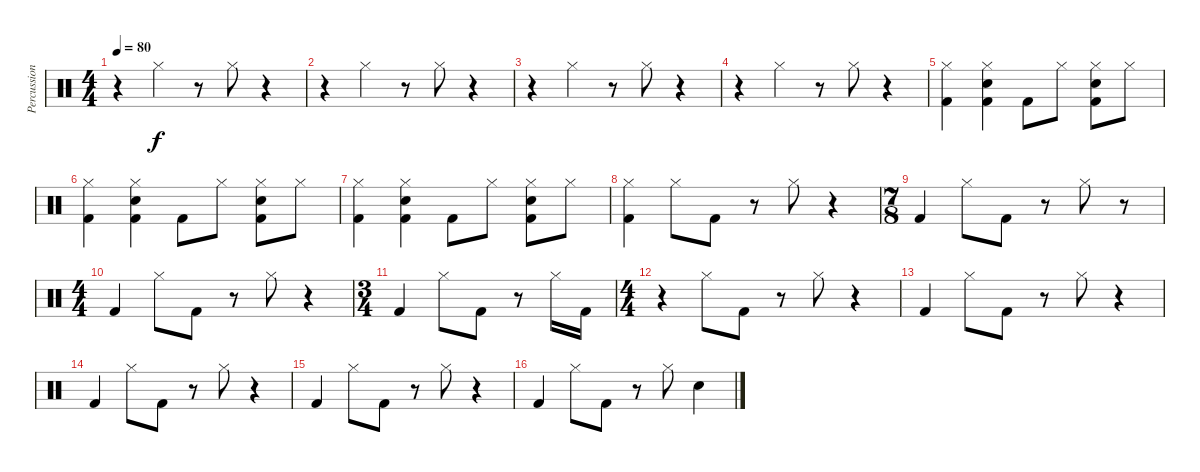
\track ("Percussion" "Percussion") {instrument percussion}
\staff {score}
\articulation defaults
\ts (4 4)
\tempo 80
\clef neutral
\ks c
r.4{dy f} "Hi-Hat (closed)".4 r.8 "Hi-Hat (closed)".8 r.4 |
r.4 "Hi-Hat (closed)".4 r.8 "Hi-Hat (closed)".8 r.4 |
r.4 "Hi-Hat (closed)".4 r.8 "Hi-Hat (closed)".8 r.4 |
r.4 "Hi-Hat (closed)".4 r.8 "Hi-Hat (closed)".8 r.4 |
("Hi-Hat (closed)" "Kick (hit) 2").4 ("Hi-Hat (closed)" "Snare (hit) 2" "Kick (hit) 2").4 "Kick (hit) 2".8 "Hi-Hat (closed)".8 ("Hi-Hat (closed)" "Snare (hit) 2" "Kick (hit) 2").8 "Hi-Hat (closed)".8 |
("Hi-Hat (closed)" "Kick (hit) 2").4 ("Hi-Hat (closed)" "Snare (hit) 2" "Kick (hit) 2").4 "Kick (hit) 2".8 "Hi-Hat (closed)".8 ("Hi-Hat (closed)" "Snare (hit) 2" "Kick (hit) 2").8 "Hi-Hat (closed)".8 |
("Hi-Hat (closed)" "Kick (hit) 2").4 ("Hi-Hat (closed)" "Snare (hit) 2" "Kick (hit) 2").4 "Kick (hit) 2".8 "Hi-Hat (closed)".8 ("Hi-Hat (closed)" "Snare (hit) 2" "Kick (hit) 2").8 "Hi-Hat (closed)".8 |
("Hi-Hat (closed)" "Kick (hit) 2").4 "Hi-Hat (closed)".8 "Kick (hit) 2".8 r.8 "Hi-Hat (closed)".8 r.4 |
\ts (7 8)
"Kick (hit) 2".4 "Hi-Hat (closed)".8 "Kick (hit) 2".8 r.8 "Hi-Hat (closed)".8 r.8 |
\ts (4 4)
"Kick (hit) 2".4 "Hi-Hat (closed)".8 "Kick (hit) 2".8 r.8 "Hi-Hat (closed)".8 r.4 |
\ts (3 4)
"Kick (hit) 2".4 "Hi-Hat (closed)".8 "Kick (hit) 2".8 r.8 "Hi-Hat (closed)".16 "Kick (hit) 2".16 |
\ts (4 4)
r.4 "Hi-Hat (closed)".8 "Kick (hit) 2".8 r.8 "Hi-Hat (closed)".8 r.4 |
"Kick (hit) 2".4 "Hi-Hat (closed)".8 "Kick (hit) 2".8 r.8 "Hi-Hat (closed)".8 r.4 |
"Kick (hit) 2".4 "Hi-Hat (closed)".8 "Kick (hit) 2".8 r.8 "Hi-Hat (closed)".8 r.4 |
"Kick (hit) 2".4 "Hi-Hat (closed)".8 "Kick (hit) 2".8 r.8 "Hi-Hat (closed)".8 r.4 |
"Kick (hit) 2".4 "Hi-Hat (closed)".8 "Kick (hit) 2".8 r.8 "Hi-Hat (closed)".8 "Snare (hit) 2".4
